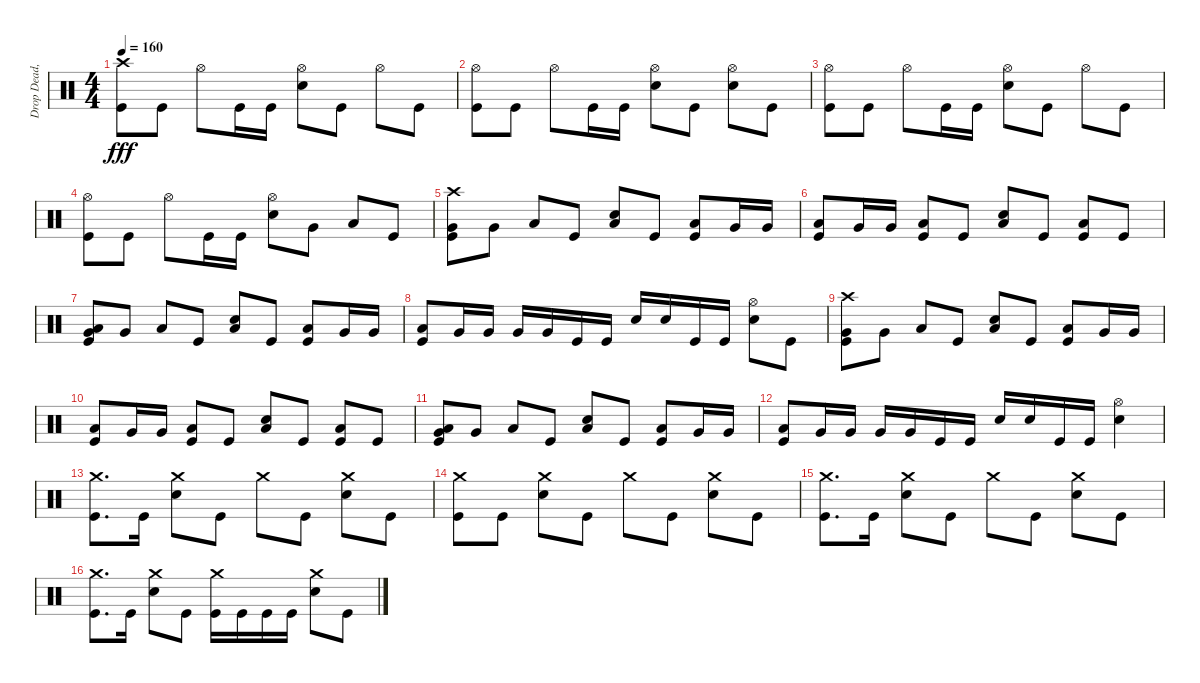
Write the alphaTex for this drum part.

\track ("Drop Dead, Johnny" "Drop Dead,") {instrument percussion}
\staff {score}
\articulation defaults
\ts (4 4)
\tempo 160
\clef neutral
\ks c
("Crash high (hit)" "Kick (hit)").8{dy fff} "Kick (hit)".8 "Hi-Hat (open)".8 "Kick (hit)".16 "Kick (hit)".16 ("Hi-Hat (open)" "Electric Snare (hit)").8 "Kick (hit)".8 "Hi-Hat (open)".8 "Kick (hit)".8 |
("Hi-Hat (open)" "Kick (hit)").8 "Kick (hit)".8 "Hi-Hat (open)".8 "Kick (hit)".16 "Kick (hit)".16 ("Hi-Hat (open)" "Electric Snare (hit)").8 "Kick (hit)".8 ("Hi-Hat (open)" "Electric Snare (hit)").8 "Kick (hit)".8 |
("Hi-Hat (open)" "Kick (hit)").8 "Kick (hit)".8 "Hi-Hat (open)".8 "Kick (hit)".16 "Kick (hit)".16 ("Hi-Hat (open)" "Electric Snare (hit)").8 "Kick (hit)".8 "Hi-Hat (open)".8 "Kick (hit)".8 |
("Hi-Hat (open)" "Kick (hit)").8 "Kick (hit)".8 "Hi-Hat (open)".8 "Kick (hit)".16 "Kick (hit)".16 ("Hi-Hat (open)" "Electric Snare (hit)").8 "Very Low Tom (hit)".8 "Low Floor Tom (hit)".8 "Kick (hit)".8 |
("Crash high (hit)" "Very Low Tom (hit)" "Kick (hit)").8 "Very Low Tom (hit)".8 "Low Floor Tom (hit)".8 "Kick (hit)".8 ("Low Floor Tom (hit)" "Electric Snare (hit)").8 "Kick (hit)".8 ("Low Floor Tom (hit)" "Kick (hit)").8 "Very Low Tom (hit)".16 "Very Low Tom (hit)".16 |
("Low Floor Tom (hit)" "Kick (hit)").8 "Very Low Tom (hit)".16 "Very Low Tom (hit)".16 ("Low Floor Tom (hit)" "Kick (hit)").8 "Kick (hit)".8 ("Low Floor Tom (hit)" "Electric Snare (hit)").8 "Kick (hit)".8 ("Low Floor Tom (hit)" "Kick (hit)").8 "Kick (hit)".8 |
("Very Low Tom (hit)" "Low Floor Tom (hit)" "Kick (hit)").8 "Very Low Tom (hit)".8 "Low Floor Tom (hit)".8 "Kick (hit)".8 ("Low Floor Tom (hit)" "Electric Snare (hit)").8 "Kick (hit)".8 ("Low Floor Tom (hit)" "Kick (hit)").8 "Very Low Tom (hit)".16 "Very Low Tom (hit)".16 |
("Low Floor Tom (hit)" "Kick (hit)").8 "Very Low Tom (hit)".16 "Very Low Tom (hit)".16 "Very Low Tom (hit)".16 "Very Low Tom (hit)".16 "Kick (hit)".16 "Kick (hit)".16 "Electric Snare (hit)".16 "Electric Snare (hit)".16 "Kick (hit)".16 "Kick (hit)".16 ("Hi-Hat (open)" "Electric Snare (hit)").8 "Kick (hit)".8 |
("Crash high (hit)" "Very Low Tom (hit)" "Kick (hit)").8 "Very Low Tom (hit)".8 "Low Floor Tom (hit)".8 "Kick (hit)".8 ("Low Floor Tom (hit)" "Electric Snare (hit)").8 "Kick (hit)".8 ("Low Floor Tom (hit)" "Kick (hit)").8 "Very Low Tom (hit)".16 "Very Low Tom (hit)".16 |
("Low Floor Tom (hit)" "Kick (hit)").8 "Very Low Tom (hit)".16 "Very Low Tom (hit)".16 ("Low Floor Tom (hit)" "Kick (hit)").8 "Kick (hit)".8 ("Low Floor Tom (hit)" "Electric Snare (hit)").8 "Kick (hit)".8 ("Low Floor Tom (hit)" "Kick (hit)").8 "Kick (hit)".8 |
("Very Low Tom (hit)" "Low Floor Tom (hit)" "Kick (hit)").8 "Very Low Tom (hit)".8 "Low Floor Tom (hit)".8 "Kick (hit)".8 ("Low Floor Tom (hit)" "Electric Snare (hit)").8 "Kick (hit)".8 ("Low Floor Tom (hit)" "Kick (hit)").8 "Very Low Tom (hit)".16 "Very Low Tom (hit)".16 |
("Low Floor Tom (hit)" "Kick (hit)").8 "Very Low Tom (hit)".16 "Very Low Tom (hit)".16 "Very Low Tom (hit)".16 "Very Low Tom (hit)".16 "Kick (hit)".16 "Kick (hit)".16 "Electric Snare (hit)".16 "Electric Snare (hit)".16 "Kick (hit)".16 "Kick (hit)".16 ("Hi-Hat (open)" "Electric Snare (hit)").4 |
("Crash medium (hit)" "Kick (hit)").8{d} "Kick (hit)".16 ("Crash medium (hit)" "Electric Snare (hit)").8 "Kick (hit)".8 "Crash medium (hit)".8 "Kick (hit)".8 ("Crash medium (hit)" "Electric Snare (hit)").8 "Kick (hit)".8 |
("Crash medium (hit)" "Kick (hit)").8 "Kick (hit)".8 ("Crash medium (hit)" "Electric Snare (hit)").8 "Kick (hit)".8 "Crash medium (hit)".8 "Kick (hit)".8 ("Crash medium (hit)" "Electric Snare (hit)").8 "Kick (hit)".8 |
("Crash medium (hit)" "Kick (hit)").8{d} "Kick (hit)".16 ("Crash medium (hit)" "Electric Snare (hit)").8 "Kick (hit)".8 "Crash medium (hit)".8 "Kick (hit)".8 ("Crash medium (hit)" "Electric Snare (hit)").8 "Kick (hit)".8 |
("Crash medium (hit)" "Kick (hit)").8{d} "Kick (hit)".16 ("Crash medium (hit)" "Electric Snare (hit)").8 "Kick (hit)".8 ("Crash medium (hit)" "Kick (hit)").16 "Kick (hit)".16 "Kick (hit)".16 "Kick (hit)".16 ("Crash medium (hit)" "Electric Snare (hit)").8 "Kick (hit)".8
